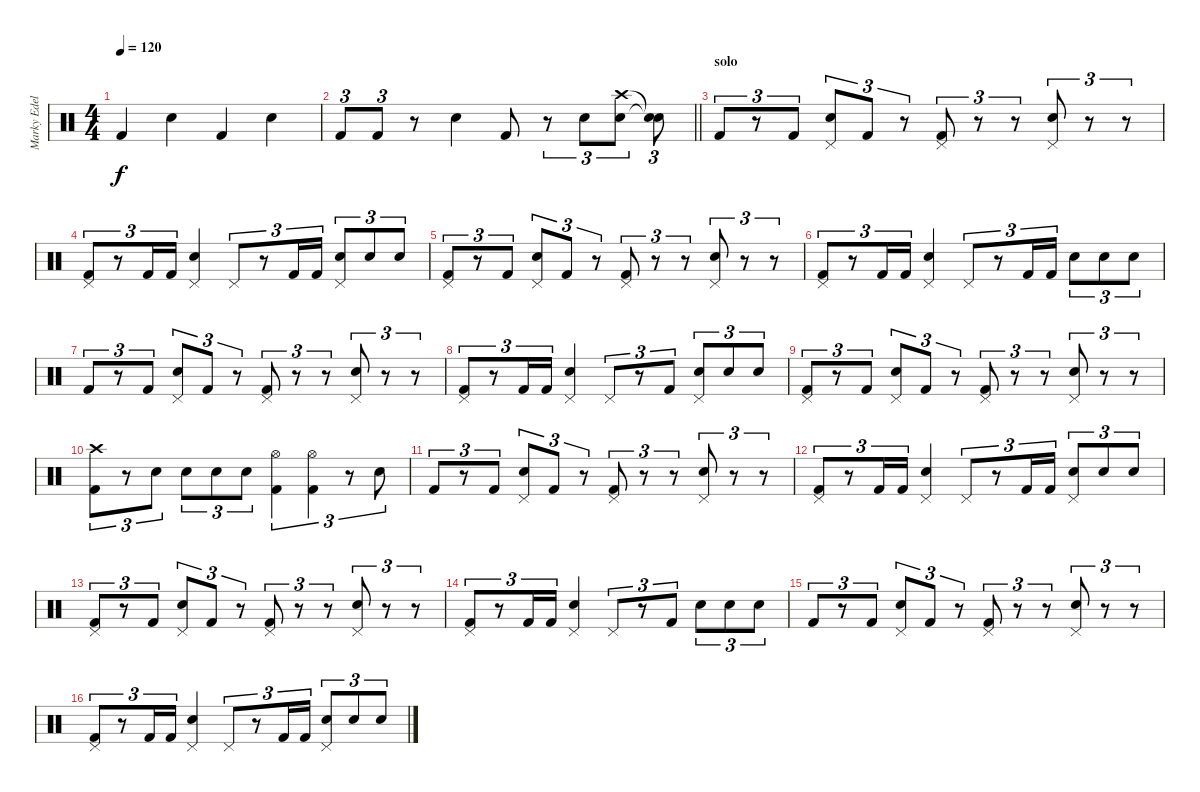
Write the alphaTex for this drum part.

\track ("Marky Edelmann" "Marky Edel") {instrument percussion}
\staff {score}
\articulation defaults
\ts (4 4)
\tempo 120
\clef neutral
\ks c "Kick (hit) 2".4{dy f} "Snare (hit) 2".4 "Kick (hit) 2".4 "Snare (hit) 2".4
|
\barLineRight lightlight "Kick (hit) 2".8{tu (3 2)} "Kick (hit) 2".8{tu (3 2)}
r.8 "Snare (hit) 2".4 "Kick (hit) 2".8 r.8{tu (3 2)} "Snare (hit) 2".8{tu (3 2)} ("Crash high (hit)" "Snare (hit) 2").8{tu (3 2)} ("Snare (hit)"{t} "Snare (hit) 2"{t}).8{tu (3 2)} |
\section ("" "solo")
"Kick (hit) 2".8{tu (3 2)} r.8{tu (3 2)} "Kick (hit) 2".8{tu (3 2)} ("Pedal Hi-Hat (hit)" "Snare (hit) 2").8{tu (3 2)} "Kick (hit) 2".8{tu (3 2)} r.8{tu (3 2)} ("Pedal Hi-Hat (hit)" "Kick (hit) 2").8{tu (3 2)} r.8{tu (3 2)} r.8{tu (3 2)} ("Pedal Hi-Hat (hit)" "Snare (hit) 2").8{tu (3 2)} r.8{tu (3 2)} r.8{tu (3 2)} |
("Pedal Hi-Hat (hit)" "Kick (hit) 2").8{tu (3 2)} r.8{tu (3 2)} "Kick (hit) 2".16{tu (3 2)} "Kick (hit) 2".16{tu (3 2)} ("Pedal Hi-Hat (hit)" "Snare (hit) 2").4 "Pedal Hi-Hat (hit)".8{tu (3 2)} r.8{tu (3 2)} "Kick (hit) 2".16{tu (3 2)} "Kick (hit) 2".16{tu (3 2)} ("Pedal Hi-Hat (hit)" "Snare (hit) 2").8{tu (3 2)} "Snare (hit) 2".8{tu (3 2)} "Snare (hit) 2".8{tu (3 2)} |
("Pedal Hi-Hat (hit)" "Kick (hit) 2").8{tu (3 2)} r.8{tu (3 2)} "Kick (hit) 2".8{tu (3 2)} ("Pedal Hi-Hat (hit)" "Snare (hit) 2").8{tu (3 2)} "Kick (hit) 2".8{tu (3 2)} r.8{tu (3 2)} ("Pedal Hi-Hat (hit)" "Kick (hit) 2").8{tu (3 2)} r.8{tu (3 2)} r.8{tu (3 2)} ("Pedal Hi-Hat (hit)" "Snare (hit) 2").8{tu (3 2)} r.8{tu (3 2)} r.8{tu (3 2)} |
("Pedal Hi-Hat (hit)" "Kick (hit) 2").8{tu (3 2)} r.8{tu (3 2)} "Kick (hit) 2".16{tu (3 2)} "Kick (hit) 2".16{tu (3 2)} ("Pedal Hi-Hat (hit)" "Snare (hit) 2").4 "Pedal Hi-Hat (hit)".8{tu (3 2)} r.8{tu (3 2)} "Kick (hit) 2".16{tu (3 2)} "Kick (hit) 2".16{tu (3 2)} "Snare (hit) 2".8{tu (3 2)} "Snare (hit) 2".8{tu (3 2)} "Snare (hit) 2".8{tu (3 2)} |
"Kick (hit) 2".8{tu (3 2)} r.8{tu (3 2)} "Kick (hit) 2".8{tu (3 2)} ("Pedal Hi-Hat (hit)" "Snare (hit) 2").8{tu (3 2)} "Kick (hit) 2".8{tu (3 2)} r.8{tu (3 2)} ("Pedal Hi-Hat (hit)" "Kick (hit) 2").8{tu (3 2)} r.8{tu (3 2)} r.8{tu (3 2)} ("Pedal Hi-Hat (hit)" "Snare (hit) 2").8{tu (3 2)} r.8{tu (3 2)} r.8{tu (3 2)} |
("Pedal Hi-Hat (hit)" "Kick (hit) 2").8{tu (3 2)} r.8{tu (3 2)} "Kick (hit) 2".16{tu (3 2)} "Kick (hit) 2".16{tu (3 2)} ("Pedal Hi-Hat (hit)" "Snare (hit) 2").4 "Pedal Hi-Hat (hit)".8{tu (3 2)} r.8{tu (3 2)} "Kick (hit) 2".8{tu (3 2)} ("Pedal Hi-Hat (hit)" "Snare (hit) 2").8{tu (3 2)} "Snare (hit) 2".8{tu (3 2)} "Snare (hit) 2".8{tu (3 2)} |
("Pedal Hi-Hat (hit)" "Kick (hit) 2").8{tu (3 2)} r.8{tu (3 2)} "Kick (hit) 2".8{tu (3 2)} ("Pedal Hi-Hat (hit)" "Snare (hit) 2").8{tu (3 2)} "Kick (hit) 2".8{tu (3 2)} r.8{tu (3 2)} ("Pedal Hi-Hat (hit)" "Kick (hit) 2").8{tu (3 2)} r.8{tu (3 2)} r.8{tu (3 2)} ("Pedal Hi-Hat (hit)" "Snare (hit) 2").8{tu (3 2)} r.8{tu (3 2)} r.8{tu (3 2)} |
("Crash high (hit)" "Kick (hit) 2").8{tu (3 2)} r.8{tu (3 2)} "Snare (hit) 2".8{tu (3 2)} "Snare (hit) 2".8{tu (3 2)} "Snare (hit) 2".8{tu (3 2)} "Snare (hit) 2".8{tu (3 2)} ("Hi-Hat (open)" "Kick (hit) 2").4{tu (3 2)} ("Hi-Hat (open)" "Kick (hit) 2").4{tu (3 2)} r.8{tu (3 2)} "Snare (hit) 2".8{tu (3 2)} |
"Kick (hit) 2".8{tu (3 2)} r.8{tu (3 2)} "Kick (hit) 2".8{tu (3 2)} ("Pedal Hi-Hat (hit)" "Snare (hit) 2").8{tu (3 2)} "Kick (hit) 2".8{tu (3 2)} r.8{tu (3 2)} ("Pedal Hi-Hat (hit)" "Kick (hit) 2").8{tu (3 2)} r.8{tu (3 2)} r.8{tu (3 2)} ("Pedal Hi-Hat (hit)" "Snare (hit) 2").8{tu (3 2)} r.8{tu (3 2)} r.8{tu (3 2)} |
("Pedal Hi-Hat (hit)" "Kick (hit) 2").8{tu (3 2)} r.8{tu (3 2)} "Kick (hit) 2".16{tu (3 2)} "Kick (hit) 2".16{tu (3 2)} ("Pedal Hi-Hat (hit)" "Snare (hit) 2").4 "Pedal Hi-Hat (hit)".8{tu (3 2)} r.8{tu (3 2)} "Kick (hit) 2".16{tu (3 2)} "Kick (hit) 2".16{tu (3 2)} ("Pedal Hi-Hat (hit)" "Snare (hit) 2").8{tu (3 2)} "Snare (hit) 2".8{tu (3 2)} "Snare (hit) 2".8{tu (3 2)} |
("Pedal Hi-Hat (hit)" "Kick (hit) 2").8{tu (3 2)} r.8{tu (3 2)} "Kick (hit) 2".8{tu (3 2)} ("Pedal Hi-Hat (hit)" "Snare (hit) 2").8{tu (3 2)} "Kick (hit) 2".8{tu (3 2)} r.8{tu (3 2)} ("Pedal Hi-Hat (hit)" "Kick (hit) 2").8{tu (3 2)} r.8{tu (3 2)} r.8{tu (3 2)} ("Pedal Hi-Hat (hit)" "Snare (hit) 2").8{tu (3 2)} r.8{tu (3 2)} r.8{tu (3 2)} |
("Pedal Hi-Hat (hit)" "Kick (hit) 2").8{tu (3 2)} r.8{tu (3 2)} "Kick (hit) 2".16{tu (3 2)} "Kick (hit) 2".16{tu (3 2)} ("Pedal Hi-Hat (hit)" "Snare (hit) 2").4 "Pedal Hi-Hat (hit)".8{tu (3 2)} r.8{tu (3 2)} "Kick (hit) 2".8{tu (3 2)} "Snare (hit) 2".8{tu (3 2)} "Snare (hit) 2".8{tu (3 2)} "Snare (hit) 2".8{tu (3 2)} |
"Kick (hit) 2".8{tu (3 2)} r.8{tu (3 2)} "Kick (hit) 2".8{tu (3 2)} ("Pedal Hi-Hat (hit)" "Snare (hit) 2").8{tu (3 2)} "Kick (hit) 2".8{tu (3 2)} r.8{tu (3 2)} ("Pedal Hi-Hat (hit)" "Kick (hit) 2").8{tu (3 2)} r.8{tu (3 2)} r.8{tu (3 2)} ("Pedal Hi-Hat (hit)" "Snare (hit) 2").8{tu (3 2)} r.8{tu (3 2)} r.8{tu (3 2)} |
("Pedal Hi-Hat (hit)" "Kick (hit) 2").8{tu (3 2)} r.8{tu (3 2)} "Kick (hit) 2".16{tu (3 2)} "Kick (hit) 2".16{tu (3 2)} ("Pedal Hi-Hat (hit)" "Snare (hit) 2").4 "Pedal Hi-Hat (hit)".8{tu (3 2)} r.8{tu (3 2)} "Kick (hit) 2".16{tu (3 2)} "Kick (hit) 2".16{tu (3 2)} ("Pedal Hi-Hat (hit)" "Snare (hit) 2").8{tu (3 2)} "Snare (hit) 2".8{tu (3 2)} "Snare (hit) 2".8{tu (3 2)}
